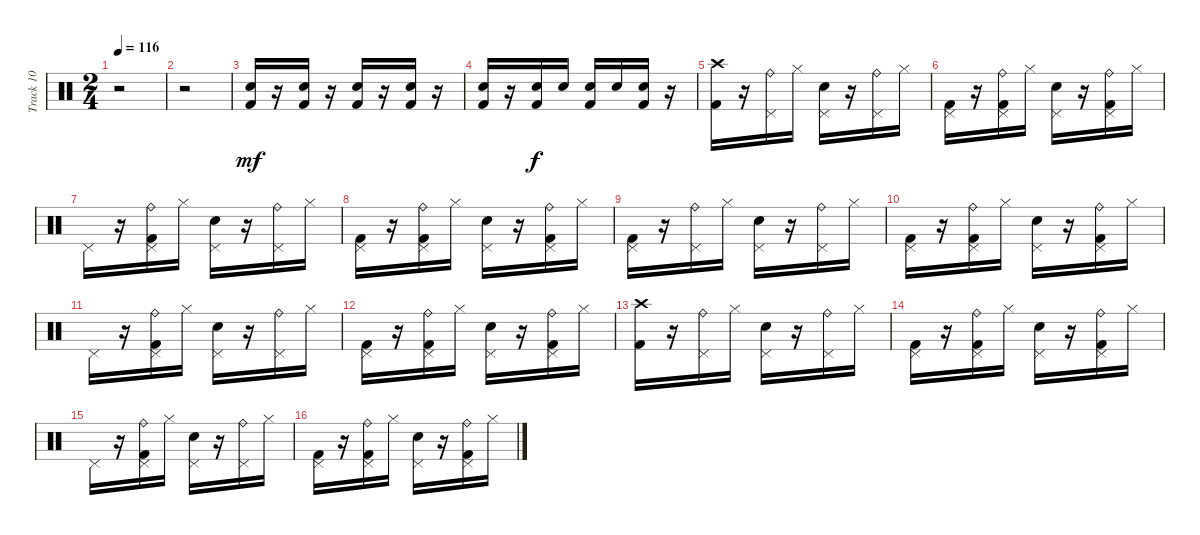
\track ("Track 10" "Track 10") {instrument percussion}
\staff {score}
\articulation defaults
\ts (2 4)
\tempo 116
\clef neutral
\ks c
r.2{dy f} |
r.2 |
("Kick (hit) 2" "Electric Snare (hit)").16{dy mf} r.16 ("Kick (hit) 2" "Electric Snare (hit)").16 r.16 ("Electric Snare (hit)" "Kick (hit) 2").16 r.16 ("Electric Snare (hit)" "Kick (hit) 2").16 r.16 |
("Kick (hit) 2" "Electric Snare (hit)").16 r.16 ("Electric Snare (hit)" "Kick (hit) 2").16{dy f} "Electric Snare (hit)".16 ("Kick (hit) 2" "Electric Snare (hit)").16 "Electric Snare (hit)".16 ("Electric Snare (hit)" "Kick (hit) 2").16 r.16 |
("Crash high (hit)" "Kick (hit) 2").16 r.16 ("Ride (bell)" "Pedal Hi-Hat (hit)").16 "Hi-Hat (closed)".16 ("Pedal Hi-Hat (hit)" "Electric Snare (hit)").16 r.16 ("Pedal Hi-Hat (hit)" "Ride (bell)").16 "Hi-Hat (closed)".16 |
("Pedal Hi-Hat (hit)" "Kick (hit) 2").16 r.16 ("Ride (bell)" "Kick (hit) 2" "Pedal Hi-Hat (hit)").16 "Hi-Hat (closed)".16 ("Pedal Hi-Hat (hit)" "Electric Snare (hit)").16 r.16 ("Kick (hit) 2" "Pedal Hi-Hat (hit)" "Ride (bell)").16 "Hi-Hat (closed)".16 |
"Pedal Hi-Hat (hit)".16 r.16 ("Pedal Hi-Hat (hit)" "Kick (hit) 2" "Ride (bell)").16 "Hi-Hat (closed)".16 ("Pedal Hi-Hat (hit)" "Electric Snare (hit)").16 r.16 ("Pedal Hi-Hat (hit)" "Ride (bell)").16 "Hi-Hat (closed)".16 |
("Pedal Hi-Hat (hit)" "Kick (hit) 2").16 r.16 ("Pedal Hi-Hat (hit)" "Ride (bell)" "Kick (hit) 2").16 "Hi-Hat (closed)".16 ("Pedal Hi-Hat (hit)" "Electric Snare (hit)").16 r.16 ("Pedal Hi-Hat (hit)" "Ride (bell)" "Kick (hit) 2").16 "Hi-Hat (closed)".16 |
("Pedal Hi-Hat (hit)" "Kick (hit) 2").16 r.16 ("Ride (bell)" "Pedal Hi-Hat (hit)").16 "Hi-Hat (closed)".16 ("Pedal Hi-Hat (hit)" "Electric Snare (hit)").16 r.16 ("Pedal Hi-Hat (hit)" "Ride (bell)").16 "Hi-Hat (closed)".16 |
("Pedal Hi-Hat (hit)" "Kick (hit) 2").16 r.16 ("Ride (bell)" "Kick (hit) 2" "Pedal Hi-Hat (hit)").16 "Hi-Hat (closed)".16 ("Pedal Hi-Hat (hit)" "Electric Snare (hit)").16 r.16 ("Kick (hit) 2" "Pedal Hi-Hat (hit)" "Ride (bell)").16 "Hi-Hat (closed)".16 |
"Pedal Hi-Hat (hit)".16 r.16 ("Pedal Hi-Hat (hit)" "Kick (hit) 2" "Ride (bell)").16 "Hi-Hat (closed)".16 ("Pedal Hi-Hat (hit)" "Electric Snare (hit)").16 r.16 ("Pedal Hi-Hat (hit)" "Ride (bell)").16 "Hi-Hat (closed)".16 |
("Pedal Hi-Hat (hit)" "Kick (hit) 2").16 r.16 ("Pedal Hi-Hat (hit)" "Ride (bell)" "Kick (hit) 2").16 "Hi-Hat (closed)".16 ("Pedal Hi-Hat (hit)" "Electric Snare (hit)").16 r.16 ("Pedal Hi-Hat (hit)" "Ride (bell)" "Kick (hit) 2").16 "Hi-Hat (closed)".16 |
("Crash high (hit)" "Kick (hit) 2").16 r.16 ("Ride (bell)" "Pedal Hi-Hat (hit)").16 "Hi-Hat (closed)".16 ("Pedal Hi-Hat (hit)" "Electric Snare (hit)").16 r.16 ("Pedal Hi-Hat (hit)" "Ride (bell)").16 "Hi-Hat (closed)".16 |
("Pedal Hi-Hat (hit)" "Kick (hit) 2").16 r.16 ("Ride (bell)" "Kick (hit) 2" "Pedal Hi-Hat (hit)").16 "Hi-Hat (closed)".16 ("Pedal Hi-Hat (hit)" "Electric Snare (hit)").16 r.16 ("Kick (hit) 2" "Pedal Hi-Hat (hit)" "Ride (bell)").16 "Hi-Hat (closed)".16 |
"Pedal Hi-Hat (hit)".16 r.16 ("Pedal Hi-Hat (hit)" "Kick (hit) 2" "Ride (bell)").16 "Hi-Hat (closed)".16 ("Pedal Hi-Hat (hit)" "Electric Snare (hit)").16 r.16 ("Pedal Hi-Hat (hit)" "Ride (bell)").16 "Hi-Hat (closed)".16 |
("Pedal Hi-Hat (hit)" "Kick (hit) 2").16 r.16 ("Pedal Hi-Hat (hit)" "Ride (bell)" "Kick (hit) 2").16 "Hi-Hat (closed)".16 ("Pedal Hi-Hat (hit)" "Electric Snare (hit)").16 r.16 ("Pedal Hi-Hat (hit)" "Ride (bell)" "Kick (hit) 2").16 "Hi-Hat (closed)".16
